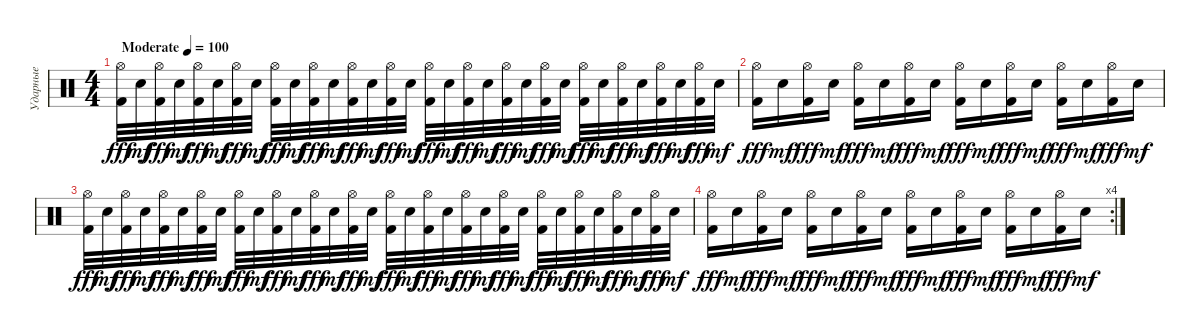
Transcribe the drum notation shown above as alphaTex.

\track ("Ударные" "Ударные") {mute instrument percussion}
\staff {score}
\articulation defaults
\ts (4 4)
\tempo (100 "Moderate")
\clef neutral
\ks c
("Hi-Hat (open)" "Kick (hit) 2").32{dy fff} "Electric Snare (hit)".32{dy mf} ("Hi-Hat (open)" "Kick (hit) 2").32{dy fff} "Electric Snare (hit)".32{dy mf} ("Hi-Hat (open)" "Kick (hit) 2").32{dy fff} "Electric Snare (hit)".32{dy mf} ("Hi-Hat (open)" "Kick (hit) 2").32{dy fff} "Electric Snare (hit)".32{dy mf} ("Hi-Hat (open)" "Kick (hit) 2").32{dy fff} "Electric Snare (hit)".32{dy mf} ("Hi-Hat (open)" "Kick (hit) 2").32{dy fff} "Electric Snare (hit)".32{dy mf} ("Hi-Hat (open)" "Kick (hit) 2").32{dy fff} "Electric Snare (hit)".32{dy mf} ("Hi-Hat (open)" "Kick (hit) 2").32{dy fff} "Electric Snare (hit)".32{dy mf} ("Hi-Hat (open)" "Kick (hit) 2").32{dy fff} "Electric Snare (hit)".32{dy mf} ("Hi-Hat (open)" "Kick (hit) 2").32{dy fff} "Electric Snare (hit)".32{dy mf} ("Hi-Hat (open)" "Kick (hit) 2").32{dy fff} "Electric Snare (hit)".32{dy mf} ("Hi-Hat (open)" "Kick (hit) 2").32{dy fff} "Electric Snare (hit)".32{dy mf} ("Hi-Hat (open)" "Kick (hit) 2").32{dy fff} "Electric Snare (hit)".32{dy mf} ("Hi-Hat (open)" "Kick (hit) 2").32{dy fff} "Electric Snare (hit)".32{dy mf} ("Hi-Hat (open)" "Kick (hit) 2").32{dy fff} "Electric Snare (hit)".32{dy mf} ("Hi-Hat (open)" "Kick (hit) 2").32{dy fff} "Electric Snare (hit)".32{dy mf} |
("Hi-Hat (open)" "Kick (hit) 2").16{dy fff} "Electric Snare (hit)".16{dy mf} ("Hi-Hat (open)" "Kick (hit) 2").16{dy fff} "Electric Snare (hit)".16{dy mf} ("Hi-Hat (open)" "Kick (hit) 2").16{dy fff} "Electric Snare (hit)".16{dy mf} ("Hi-Hat (open)" "Kick (hit) 2").16{dy fff} "Electric Snare (hit)".16{dy mf} ("Hi-Hat (open)" "Kick (hit) 2").16{dy fff} "Electric Snare (hit)".16{dy mf} ("Hi-Hat (open)" "Kick (hit) 2").16{dy fff} "Electric Snare (hit)".16{dy mf} ("Hi-Hat (open)" "Kick (hit) 2").16{dy fff} "Electric Snare (hit)".16{dy mf} ("Hi-Hat (open)" "Kick (hit) 2").16{dy fff} "Electric Snare (hit)".16{dy mf} |
("Hi-Hat (open)" "Kick (hit) 2").32{dy fff} "Electric Snare (hit)".32{dy mf} ("Hi-Hat (open)" "Kick (hit) 2").32{dy fff} "Electric Snare (hit)".32{dy mf} ("Hi-Hat (open)" "Kick (hit) 2").32{dy fff} "Electric Snare (hit)".32{dy mf} ("Hi-Hat (open)" "Kick (hit) 2").32{dy fff} "Electric Snare (hit)".32{dy mf} ("Hi-Hat (open)" "Kick (hit) 2").32{dy fff} "Electric Snare (hit)".32{dy mf} ("Hi-Hat (open)" "Kick (hit) 2").32{dy fff} "Electric Snare (hit)".32{dy mf} ("Hi-Hat (open)" "Kick (hit) 2").32{dy fff} "Electric Snare (hit)".32{dy mf} ("Hi-Hat (open)" "Kick (hit) 2").32{dy fff} "Electric Snare (hit)".32{dy mf} ("Hi-Hat (open)" "Kick (hit) 2").32{dy fff} "Electric Snare (hit)".32{dy mf} ("Hi-Hat (open)" "Kick (hit) 2").32{dy fff} "Electric Snare (hit)".32{dy mf} ("Hi-Hat (open)" "Kick (hit) 2").32{dy fff} "Electric Snare (hit)".32{dy mf} ("Hi-Hat (open)" "Kick (hit) 2").32{dy fff} "Electric Snare (hit)".32{dy mf} ("Hi-Hat (open)" "Kick (hit) 2").32{dy fff} "Electric Snare (hit)".32{dy mf} ("Hi-Hat (open)" "Kick (hit) 2").32{dy fff} "Electric Snare (hit)".32{dy mf} ("Hi-Hat (open)" "Kick (hit) 2").32{dy fff} "Electric Snare (hit)".32{dy mf} ("Hi-Hat (open)" "Kick (hit) 2").32{dy fff} "Electric Snare (hit)".32{dy mf} |
\rc 4
("Hi-Hat (open)" "Kick (hit) 2").16{dy fff} "Electric Snare (hit)".16{dy mf} ("Hi-Hat (open)" "Kick (hit) 2").16{dy fff} "Electric Snare (hit)".16{dy mf} ("Hi-Hat (open)" "Kick (hit) 2").16{dy fff} "Electric Snare (hit)".16{dy mf} ("Hi-Hat (open)" "Kick (hit) 2").16{dy fff} "Electric Snare (hit)".16{dy mf} ("Hi-Hat (open)" "Kick (hit) 2").16{dy fff} "Electric Snare (hit)".16{dy mf} ("Hi-Hat (open)" "Kick (hit) 2").16{dy fff} "Electric Snare (hit)".16{dy mf} ("Hi-Hat (open)" "Kick (hit) 2").16{dy fff} "Electric Snare (hit)".16{dy mf} ("Hi-Hat (open)" "Kick (hit) 2").16{dy fff} "Electric Snare (hit)".16{dy mf}
